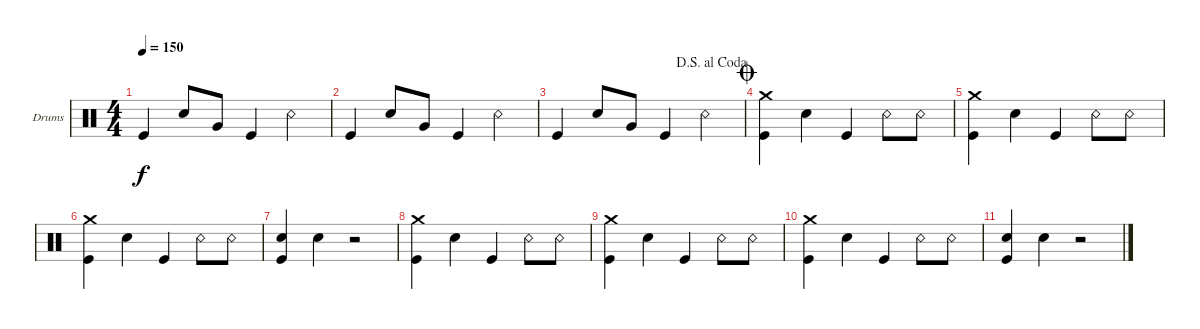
\bracketExtendMode groupsimilarinstruments
\firstSystemTrackNameOrientation horizontal
\otherSystemsTrackNameOrientation horizontal
\track ("Drumkit" "Drums") {instrument percussion}
\staff {score}
\articulation defaults
\ts (4 4)
\tempo 150
\clef neutral
\scale
0.333333
\ks c "Kick (hit)".4{dy f} "Snare (hit) 2".8 "Very Low Tom (hit)".8 "Kick (hit)".4 "Snare (rim shot)".4
|
\scale
0.333333 "Kick (hit)".4 "Snare (hit) 2".8 "Very Low Tom (hit)".8 "Kick (hit)".4 "Snare (rim shot)".4 |
\jump dalsegnoalcoda
\scale
0.333333 "Kick (hit)".4 "Snare (hit) 2".8 "Very Low Tom (hit)".8 "Kick (hit)".4 "Snare (rim shot)".4 |
\jump coda
\scale
0.333333 ("Kick (hit)" "Crash medium (hit)").4 "Snare (hit) 2".4 "Kick (hit)".4 "Snare (rim shot)".8 "Snare (rim shot)".8 |
\scale
0.333333 ("Kick (hit)" "Crash medium (hit)").4 "Snare (hit) 2".4 "Kick (hit)".4 "Snare (rim shot)".8 "Snare (rim shot)".8 |
\scale
0.333333 ("Kick (hit)" "Crash medium (hit)").4 "Snare (hit) 2".4 "Kick (hit)".4 "Snare (rim shot)".8 "Snare (rim shot)".8 |
\scale
0.333333 ("Kick (hit)" "Snare (hit) 2").4 "Snare (hit) 2".4 r.2 |
\scale
0.333333 ("Kick (hit)" "Crash medium (hit)").4 "Snare (hit) 2".4 "Kick (hit)".4 "Snare (rim shot)".8 "Snare (rim shot)".8 |
("Kick (hit)" "Crash medium (hit)").4 "Snare (hit) 2".4 "Kick (hit)".4 "Snare (rim shot)".8 "Snare (rim shot)".8 |
("Kick (hit)" "Crash medium (hit)").4 "Snare (hit) 2".4 "Kick (hit)".4 "Snare (rim shot)".8 "Snare (rim shot)".8 |
("Kick (hit)" "Snare (hit) 2").4 "Snare (hit) 2".4 r.2
